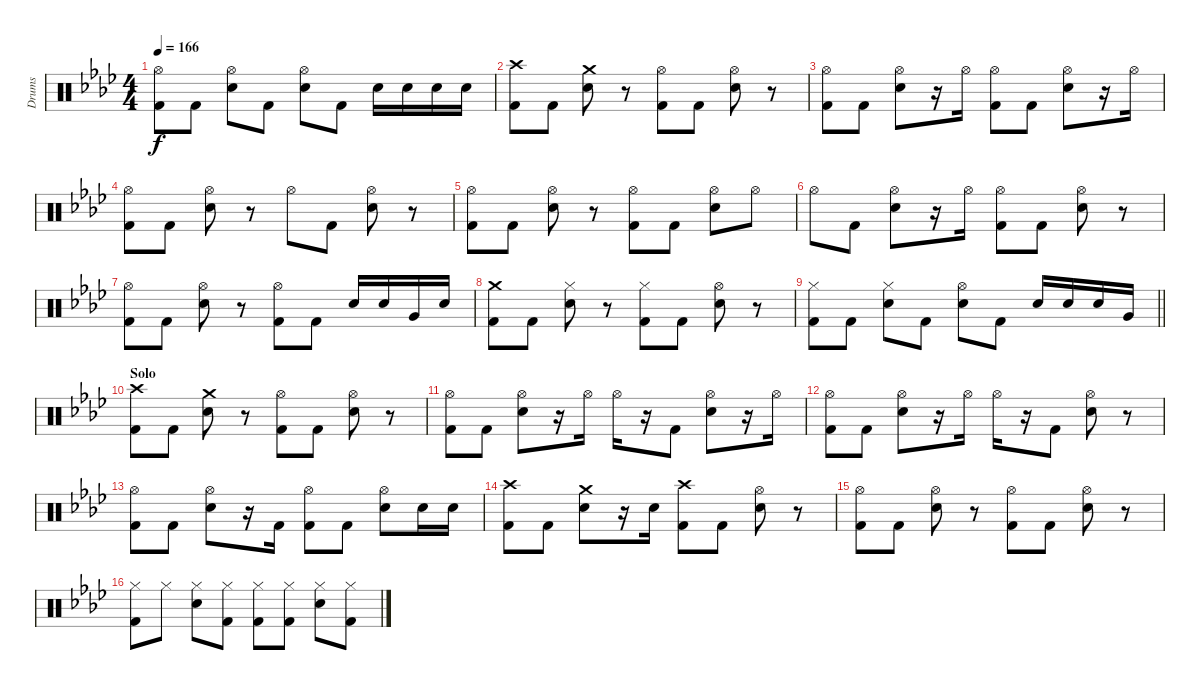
\track ("Drums" "Drums") {instrument percussion}
\staff {score}
\articulation defaults
\ts (4 4)
\tempo 166
\clef neutral
\ks ab
("Hi-Hat (open)" "Kick (hit) 2").8{dy f} "Kick (hit) 2".8 ("Hi-Hat (open)" "Electric Snare (hit)").8 "Kick (hit) 2".8 ("Hi-Hat (open)" "Electric Snare (hit)").8 "Kick (hit) 2".8 "Electric Snare (hit)".16 "Electric Snare (hit)".16 "Electric Snare (hit)".16 "Electric Snare (hit)".16 |
("Crash high (hit)" "Kick (hit) 2").8 "Kick (hit) 2".8 ("Crash medium (hit)" "Electric Snare (hit)").8 r.8 ("Hi-Hat (open)" "Kick (hit) 2").8 "Kick (hit) 2".8 ("Hi-Hat (open)" "Electric Snare (hit)").8 r.8 |
("Hi-Hat (open)" "Kick (hit) 2").8 "Kick (hit) 2".8 ("Hi-Hat (open)" "Electric Snare (hit)").8 r.16 "Hi-Hat (open)".16 ("Hi-Hat (open)" "Kick (hit) 2").8 "Kick (hit) 2".8 ("Hi-Hat (open)" "Electric Snare (hit)").8 r.16 "Hi-Hat (open)".16 |
("Hi-Hat (open)" "Kick (hit) 2").8 "Kick (hit) 2".8 ("Hi-Hat (open)" "Electric Snare (hit)").8 r.8 "Hi-Hat (open)".8 "Kick (hit) 2".8 ("Hi-Hat (open)" "Electric Snare (hit)").8 r.8 |
("Hi-Hat (open)" "Kick (hit) 2").8 "Kick (hit) 2".8 ("Hi-Hat (open)" "Electric Snare (hit)").8 r.8 ("Hi-Hat (open)" "Kick (hit) 2").8 "Kick (hit) 2".8 ("Hi-Hat (open)" "Electric Snare (hit)").8 "Hi-Hat (open)".8 |
"Hi-Hat (open)".8 "Kick (hit) 2".8 ("Hi-Hat (open)" "Electric Snare (hit)").8 r.16 "Hi-Hat (open)".16 ("Hi-Hat (open)" "Kick (hit) 2").8 "Kick (hit) 2".8 ("Hi-Hat (open)" "Electric Snare (hit)").8 r.8 |
("Hi-Hat (open)" "Kick (hit) 2").8 "Kick (hit) 2".8 ("Hi-Hat (open)" "Electric Snare (hit)").8 r.8 ("Hi-Hat (open)" "Kick (hit) 2").8 "Kick (hit) 2".8 "Electric Snare (hit)".16 "Electric Snare (hit)".16 "Very Low Tom (hit)".16 "Electric Snare (hit)".16 |
("Crash medium (hit)" "Kick (hit) 2").8 "Kick (hit) 2".8 ("Hi-Hat (closed)" "Electric Snare (hit)").8 r.8 ("Hi-Hat (closed)" "Kick (hit) 2").8 "Kick (hit) 2".8 ("Hi-Hat (open)" "Electric Snare (hit)").8 r.8 |
\barLineRight lightlight
("Hi-Hat (closed)" "Kick (hit) 2").8 "Kick (hit) 2".8 ("Hi-Hat (closed)" "Electric Snare (hit)").8 "Kick (hit) 2".8 ("Hi-Hat (open)" "Electric Snare (hit)").8 "Kick (hit) 2".8 "Electric Snare (hit)".16 "Electric Snare (hit)".16 "Electric Snare (hit)".16 "Very Low Tom (hit)".16 |
\section ("" "Solo")
("Crash high (hit)" "Kick (hit) 2").8 "Kick (hit) 2".8 ("Crash medium (hit)" "Electric Snare (hit)").8 r.8 ("Hi-Hat (open)" "Kick (hit) 2").8 "Kick (hit) 2".8 ("Hi-Hat (open)" "Electric Snare (hit)").8 r.8 |
("Hi-Hat (open)" "Kick (hit) 2").8 "Kick (hit) 2".8 ("Hi-Hat (open)" "Electric Snare (hit)").8 r.16 "Hi-Hat (open)".16 "Hi-Hat (open)".16 r.16 "Kick (hit) 2".8 ("Hi-Hat (open)" "Electric Snare (hit)").8 r.16 "Hi-Hat (open)".16 |
("Hi-Hat (open)" "Kick (hit) 2").8 "Kick (hit) 2".8 ("Hi-Hat (open)" "Electric Snare (hit)").8 r.16 "Hi-Hat (open)".16 "Hi-Hat (open)".16 r.16 "Kick (hit) 2".8 ("Hi-Hat (open)" "Electric Snare (hit)").8 r.8 |
("Hi-Hat (open)" "Kick (hit) 2").8 "Kick (hit) 2".8 ("Hi-Hat (open)" "Electric Snare (hit)").8 r.16 "Kick (hit) 2".16 ("Hi-Hat (open)" "Kick (hit) 2").8 "Kick (hit) 2".8 ("Hi-Hat (open)" "Electric Snare (hit)").8 "Electric Snare (hit)".16 "Electric Snare (hit)".16 |
("Crash high (hit)" "Kick (hit) 2").8 "Kick (hit) 2".8 ("Crash medium (hit)" "Electric Snare (hit)").8 r.16 "Electric Snare (hit)".16 ("Crash high (hit)" "Kick (hit) 2").8 "Kick (hit) 2".8 ("Hi-Hat (open)" "Electric Snare (hit)").8 r.8 |
("Hi-Hat (open)" "Kick (hit) 2").8 "Kick (hit) 2".8 ("Hi-Hat (open)" "Electric Snare (hit)").8 r.8 ("Hi-Hat (open)" "Kick (hit) 2").8 "Kick (hit) 2".8 ("Hi-Hat (open)" "Electric Snare (hit)").8 r.8 |
("Hi-Hat (closed)" "Kick (hit) 2").8 "Hi-Hat (closed)".8 ("Hi-Hat (closed)" "Electric Snare (hit)").8 ("Hi-Hat (closed)" "Kick (hit) 2").8 ("Hi-Hat (closed)" "Kick (hit) 2").8 ("Hi-Hat (closed)" "Kick (hit) 2").8 ("Hi-Hat (closed)" "Electric Snare (hit)").8 ("Hi-Hat (closed)" "Kick (hit) 2").8
